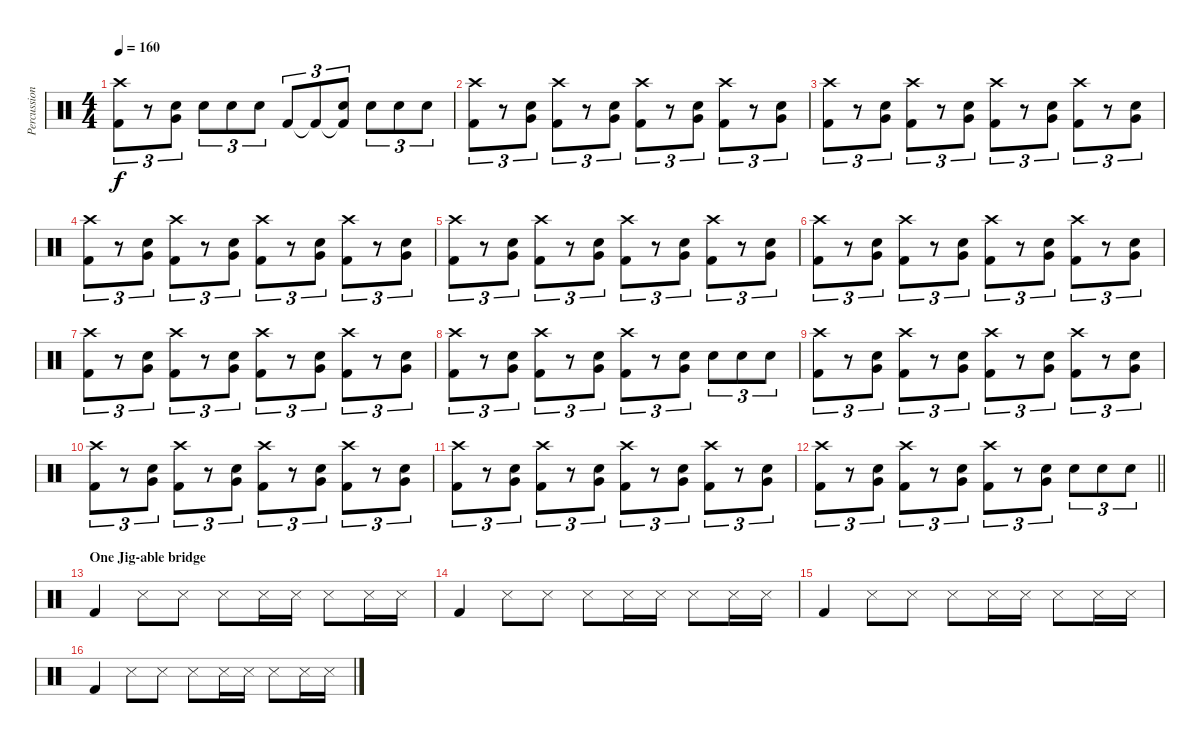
\track ("Percussion" "Percussion") {instrument percussion}
\staff {score}
\articulation defaults
\ts (4 4)
\tempo 160
\clef neutral
\ks c
("Crash high (hit)" "Kick (hit) 2").8{tu (3 2) dy f} r.8{tu (3 2)} ("Snare (hit) 2" "Very Low Tom (hit)").8{tu (3 2)} "Snare (hit) 2".8{tu (3 2)} "Snare (hit) 2".8{tu (3 2)} "Snare (hit) 2".8{tu (3 2)} "Kick (hit) 2".8{tu (3 2)} "Kick (hit) 2"{t}.8{tu (3 2)} ("Kick (hit) 2"{t} "Snare (hit) 2").8{tu (3 2)} "Snare (hit) 2".8{tu (3 2)} "Snare (hit) 2".8{tu (3 2)} "Snare (hit) 2".8{tu (3 2)} |
("Crash high (hit)" "Kick (hit) 2").8{tu (3 2)} r.8{tu (3 2)} ("Snare (hit) 2" "Very Low Tom (hit)").8{tu (3 2)} ("Crash high (hit)" "Kick (hit) 2").8{tu (3 2)} r.8{tu (3 2)} ("Snare (hit) 2" "Very Low Tom (hit)").8{tu (3 2)} ("Crash high (hit)" "Kick (hit) 2").8{tu (3 2)} r.8{tu (3 2)} ("Snare (hit) 2" "Very Low Tom (hit)").8{tu (3 2)} ("Crash high (hit)" "Kick (hit) 2").8{tu (3 2)} r.8{tu (3 2)} ("Snare (hit) 2" "Very Low Tom (hit)").8{tu (3 2)} |
("Crash high (hit)" "Kick (hit) 2").8{tu (3 2)} r.8{tu (3 2)} ("Snare (hit) 2" "Very Low Tom (hit)").8{tu (3 2)} ("Crash high (hit)" "Kick (hit) 2").8{tu (3 2)} r.8{tu (3 2)} ("Snare (hit) 2" "Very Low Tom (hit)").8{tu (3 2)} ("Crash high (hit)" "Kick (hit) 2").8{tu (3 2)} r.8{tu (3 2)} ("Snare (hit) 2" "Very Low Tom (hit)").8{tu (3 2)} ("Crash high (hit)" "Kick (hit) 2").8{tu (3 2)} r.8{tu (3 2)} ("Snare (hit) 2" "Very Low Tom (hit)").8{tu (3 2)} |
("Crash high (hit)" "Kick (hit) 2").8{tu (3 2)} r.8{tu (3 2)} ("Snare (hit) 2" "Very Low Tom (hit)").8{tu (3 2)} ("Crash high (hit)" "Kick (hit) 2").8{tu (3 2)} r.8{tu (3 2)} ("Snare (hit) 2" "Very Low Tom (hit)").8{tu (3 2)} ("Crash high (hit)" "Kick (hit) 2").8{tu (3 2)} r.8{tu (3 2)} ("Snare (hit) 2" "Very Low Tom (hit)").8{tu (3 2)} ("Crash high (hit)" "Kick (hit) 2").8{tu (3 2)} r.8{tu (3 2)} ("Snare (hit) 2" "Very Low Tom (hit)").8{tu (3 2)} |
("Crash high (hit)" "Kick (hit) 2").8{tu (3 2)} r.8{tu (3 2)} ("Snare (hit) 2" "Very Low Tom (hit)").8{tu (3 2)} ("Crash high (hit)" "Kick (hit) 2").8{tu (3 2)} r.8{tu (3 2)} ("Snare (hit) 2" "Very Low Tom (hit)").8{tu (3 2)} ("Crash high (hit)" "Kick (hit) 2").8{tu (3 2)} r.8{tu (3 2)} ("Snare (hit) 2" "Very Low Tom (hit)").8{tu (3 2)} ("Crash high (hit)" "Kick (hit) 2").8{tu (3 2)} r.8{tu (3 2)} ("Snare (hit) 2" "Very Low Tom (hit)").8{tu (3 2)} |
("Crash high (hit)" "Kick (hit) 2").8{tu (3 2)} r.8{tu (3 2)} ("Snare (hit) 2" "Very Low Tom (hit)").8{tu (3 2)} ("Crash high (hit)" "Kick (hit) 2").8{tu (3 2)} r.8{tu (3 2)} ("Snare (hit) 2" "Very Low Tom (hit)").8{tu (3 2)} ("Crash high (hit)" "Kick (hit) 2").8{tu (3 2)} r.8{tu (3 2)} ("Snare (hit) 2" "Very Low Tom (hit)").8{tu (3 2)} ("Crash high (hit)" "Kick (hit) 2").8{tu (3 2)} r.8{tu (3 2)} ("Snare (hit) 2" "Very Low Tom (hit)").8{tu (3 2)} |
("Crash high (hit)" "Kick (hit) 2").8{tu (3 2)} r.8{tu (3 2)} ("Snare (hit) 2" "Very Low Tom (hit)").8{tu (3 2)} ("Crash high (hit)" "Kick (hit) 2").8{tu (3 2)} r.8{tu (3 2)} ("Snare (hit) 2" "Very Low Tom (hit)").8{tu (3 2)} ("Crash high (hit)" "Kick (hit) 2").8{tu (3 2)} r.8{tu (3 2)} ("Snare (hit) 2" "Very Low Tom (hit)").8{tu (3 2)} ("Crash high (hit)" "Kick (hit) 2").8{tu (3 2)} r.8{tu (3 2)} ("Snare (hit) 2" "Very Low Tom (hit)").8{tu (3 2)} |
("Crash high (hit)" "Kick (hit) 2").8{tu (3 2)} r.8{tu (3 2)} ("Snare (hit) 2" "Very Low Tom (hit)").8{tu (3 2)} ("Crash high (hit)" "Kick (hit) 2").8{tu (3 2)} r.8{tu (3 2)} ("Snare (hit) 2" "Very Low Tom (hit)").8{tu (3 2)} ("Crash high (hit)" "Kick (hit) 2").8{tu (3 2)} r.8{tu (3 2)} ("Snare (hit) 2" "Very Low Tom (hit)").8{tu (3 2)} "Snare (hit) 2".8{tu (3 2)} "Snare (hit) 2".8{tu (3 2)} "Snare (hit) 2".8{tu (3 2)} |
("Crash high (hit)" "Kick (hit) 2").8{tu (3 2)} r.8{tu (3 2)} ("Snare (hit) 2" "Very Low Tom (hit)").8{tu (3 2)} ("Crash high (hit)" "Kick (hit) 2").8{tu (3 2)} r.8{tu (3 2)} ("Snare (hit) 2" "Very Low Tom (hit)").8{tu (3 2)} ("Crash high (hit)" "Kick (hit) 2").8{tu (3 2)} r.8{tu (3 2)} ("Snare (hit) 2" "Very Low Tom (hit)").8{tu (3 2)} ("Crash high (hit)" "Kick (hit) 2").8{tu (3 2)} r.8{tu (3 2)} ("Snare (hit) 2" "Very Low Tom (hit)").8{tu (3 2)} |
("Crash high (hit)" "Kick (hit) 2").8{tu (3 2)} r.8{tu (3 2)} ("Snare (hit) 2" "Very Low Tom (hit)").8{tu (3 2)} ("Crash high (hit)" "Kick (hit) 2").8{tu (3 2)} r.8{tu (3 2)} ("Snare (hit) 2" "Very Low Tom (hit)").8{tu (3 2)} ("Crash high (hit)" "Kick (hit) 2").8{tu (3 2)} r.8{tu (3 2)} ("Snare (hit) 2" "Very Low Tom (hit)").8{tu (3 2)} ("Crash high (hit)" "Kick (hit) 2").8{tu (3 2)} r.8{tu (3 2)} ("Snare (hit) 2" "Very Low Tom (hit)").8{tu (3 2)} |
("Crash high (hit)" "Kick (hit) 2").8{tu (3 2)} r.8{tu (3 2)} ("Snare (hit) 2" "Very Low Tom (hit)").8{tu (3 2)} ("Crash high (hit)" "Kick (hit) 2").8{tu (3 2)} r.8{tu (3 2)} ("Snare (hit) 2" "Very Low Tom (hit)").8{tu (3 2)} ("Crash high (hit)" "Kick (hit) 2").8{tu (3 2)} r.8{tu (3 2)} ("Snare (hit) 2" "Very Low Tom (hit)").8{tu (3 2)} ("Crash high (hit)" "Kick (hit) 2").8{tu (3 2)} r.8{tu (3 2)} ("Snare (hit) 2" "Very Low Tom (hit)").8{tu (3 2)} |
\barLineRight lightlight
("Crash high (hit)" "Kick (hit) 2").8{tu (3 2)} r.8{tu (3 2)} ("Snare (hit) 2" "Very Low Tom (hit)").8{tu (3 2)} ("Crash high (hit)" "Kick (hit) 2").8{tu (3 2)} r.8{tu (3 2)} ("Snare (hit) 2" "Very Low Tom (hit)").8{tu (3 2)} ("Crash high (hit)" "Kick (hit) 2").8{tu (3 2)} r.8{tu (3 2)} ("Snare (hit) 2" "Very Low Tom (hit)").8{tu (3 2)} "Snare (hit) 2".8{tu (3 2)} "Snare (hit) 2".8{tu (3 2)} "Snare (hit) 2".8{tu (3 2)} |
\section ("" "One Jig-able bridge")
"Kick (hit) 2".4 "Snare (side stick) 3".8 "Snare (side stick) 3".8 "Snare (side stick) 3".8 "Snare (side stick) 3".16 "Snare (side stick) 3".16 "Snare (side stick) 3".8 "Snare (side stick) 3".16 "Snare (side stick) 3".16 |
"Kick (hit) 2".4 "Snare (side stick) 3".8 "Snare (side stick) 3".8 "Snare (side stick) 3".8 "Snare (side stick) 3".16 "Snare (side stick) 3".16 "Snare (side stick) 3".8 "Snare (side stick) 3".16 "Snare (side stick) 3".16 |
"Kick (hit) 2".4 "Snare (side stick) 3".8 "Snare (side stick) 3".8 "Snare (side stick) 3".8 "Snare (side stick) 3".16 "Snare (side stick) 3".16 "Snare (side stick) 3".8 "Snare (side stick) 3".16 "Snare (side stick) 3".16 |
"Kick (hit) 2".4 "Snare (side stick) 3".8 "Snare (side stick) 3".8 "Snare (side stick) 3".8 "Snare (side stick) 3".16 "Snare (side stick) 3".16 "Snare (side stick) 3".8 "Snare (side stick) 3".16 "Snare (side stick) 3".16
